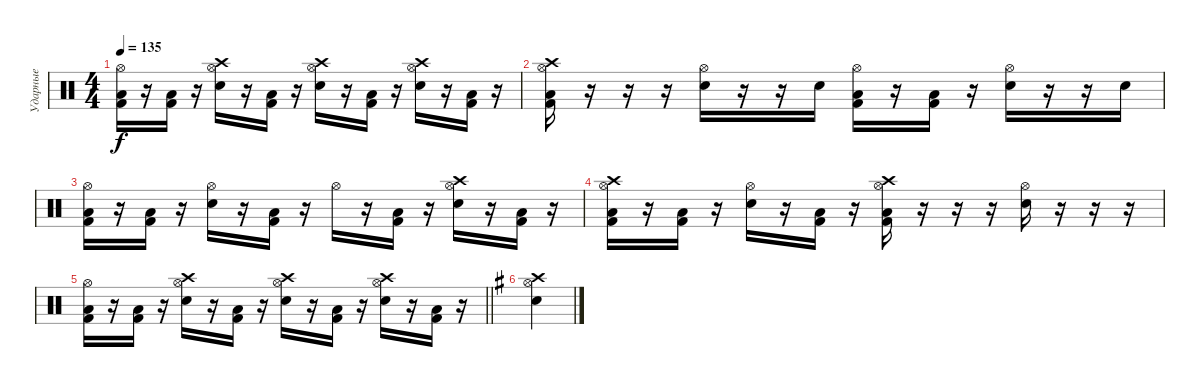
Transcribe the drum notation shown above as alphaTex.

\track ("Ударные" "Ударные") {instrument percussion}
\staff {score}
\articulation defaults
\ts (4 4)
\tempo 135
\clef neutral
\ks c
("Hi-Hat (open)" "Low Floor Tom (hit)" "Kick (hit) 2").16{dy f} r.16 ("Low Floor Tom (hit)" "Kick (hit) 2").16 r.16 ("Crash high (hit)" "Hi-Hat (open)" "Electric Snare (hit)").16 r.16 ("Low Floor Tom (hit)" "Kick (hit) 2").16 r.16 ("Crash high (hit)" "Hi-Hat (open)" "Electric Snare (hit)").16 r.16 ("Low Floor Tom (hit)" "Kick (hit) 2").16 r.16 ("Crash high (hit)" "Hi-Hat (open)" "Electric Snare (hit)").16 r.16 ("Low Floor Tom (hit)" "Kick (hit) 2").16 r.16 |
("Crash high (hit)" "Hi-Hat (open)" "Low Floor Tom (hit)" "Kick (hit) 2").16 r.16 r.16 r.16 ("Hi-Hat (open)" "Electric Snare (hit)").16 r.16 r.16 "Electric Snare (hit)".16 ("Hi-Hat (open)" "Low Floor Tom (hit)" "Kick (hit) 2").16 r.16 ("Low Floor Tom (hit)" "Kick (hit) 2").16 r.16 ("Hi-Hat (open)" "Electric Snare (hit)").16 r.16 r.16 "Electric Snare (hit)".16 |
("Hi-Hat (open)" "Low Floor Tom (hit)" "Kick (hit) 2").16 r.16 ("Low Floor Tom (hit)" "Kick (hit) 2").16 r.16 ("Hi-Hat (open)" "Electric Snare (hit)").16 r.16 ("Low Floor Tom (hit)" "Kick (hit) 2").16 r.16 "Hi-Hat (open)".16 r.16 ("Low Floor Tom (hit)" "Kick (hit) 2").16 r.16 ("Crash high (hit)" "Hi-Hat (open)" "Electric Snare (hit)").16 r.16 ("Low Floor Tom (hit)" "Kick (hit) 2").16 r.16 |
("Crash high (hit)" "Hi-Hat (open)" "Low Floor Tom (hit)" "Kick (hit) 2").16 r.16 ("Low Floor Tom (hit)" "Kick (hit) 2").16 r.16 ("Hi-Hat (open)" "Electric Snare (hit)").16 r.16 ("Low Floor Tom (hit)" "Kick (hit) 2").16 r.16 ("Crash high (hit)" "Hi-Hat (open)" "Low Floor Tom (hit)" "Kick (hit) 2").16 r.16 r.16 r.16 ("Hi-Hat (open)" "Electric Snare (hit)").16 r.16 r.16 r.16 |
\barLineRight lightlight
("Hi-Hat (open)" "Low Floor Tom (hit)" "Kick (hit) 2").16 r.16 ("Low Floor Tom (hit)" "Kick (hit) 2").16 r.16 ("Crash high (hit)" "Hi-Hat (open)" "Electric Snare (hit)").16 r.16 ("Low Floor Tom (hit)" "Kick (hit) 2").16 r.16 ("Crash high (hit)" "Hi-Hat (open)" "Electric Snare (hit)").16 r.16 ("Low Floor Tom (hit)" "Kick (hit) 2").16 r.16 ("Crash high (hit)" "Hi-Hat (open)" "Electric Snare (hit)").16 r.16 ("Low Floor Tom (hit)" "Kick (hit) 2").16 r.16 |
\ks eminor
("Crash high (hit)" "Hi-Hat (open)" "Electric Snare (hit)").4
